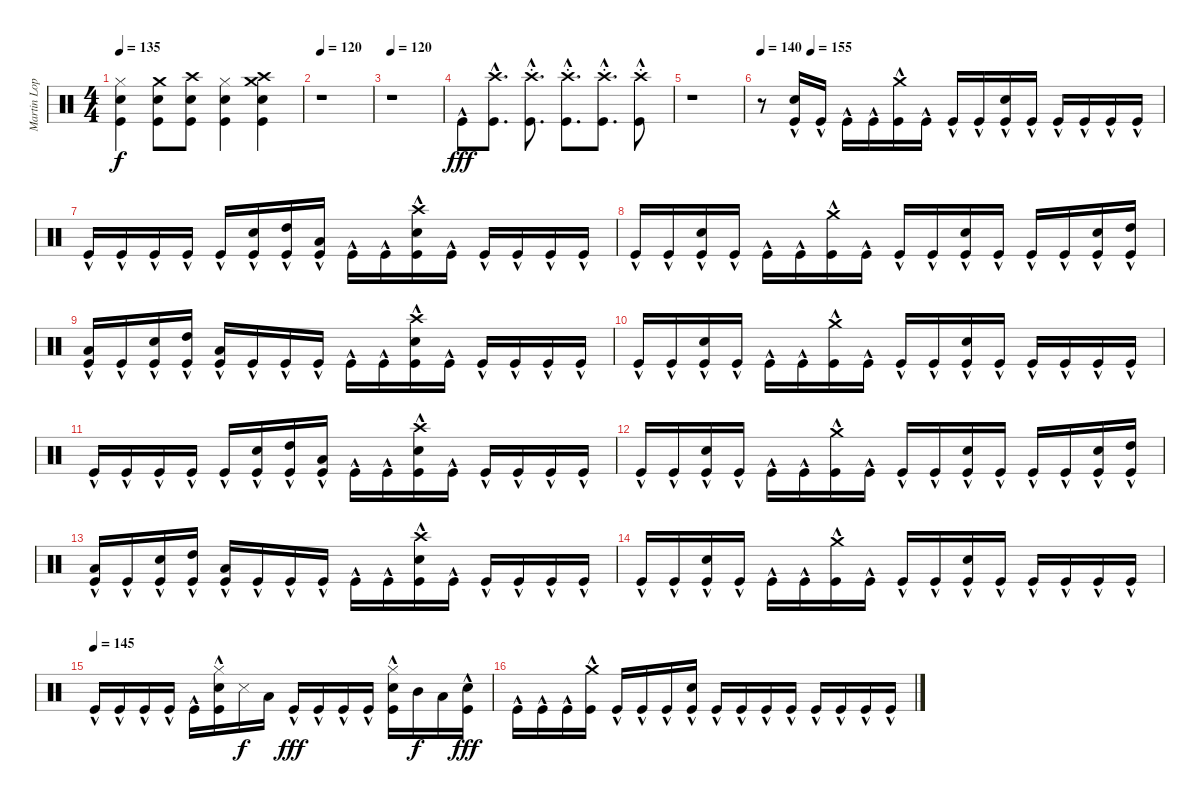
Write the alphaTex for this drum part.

\track ("Martin Lopez" "Martin Lop") {instrument percussion}
\staff {score}
\articulation defaults
\ts (4 4)
\tempo 135
\clef neutral
\ks c
("Hi-Hat (closed)" "Electric Snare (hit)" "Kick (hit)").4{dy f} ("Crash medium (hit)" "Electric Snare (hit)" "Kick (hit)").8 ("Crash high (hit)" "Electric Snare (hit)" "Kick (hit)").8 ("Hi-Hat (closed)" "Electric Snare (hit)" "Kick (hit)").4 ("Crash medium (hit)" "Crash high (hit)" "Electric Snare (hit)" "Kick (hit)").4 |
\tempo 120
r.1 |
\tempo 120
r.1 |
"Kick (hit)"{hac}.8{dy fff} ("Crash high (hit)" "Kick (hit)"{hac}).8{d} ("Crash high (hit)"{st} "Kick (hit)"{hac}).8{d} ("Crash high (hit)"{st} "Kick (hit)"{hac}).8{d} ("Crash high (hit)"{st} "Kick (hit)"{hac}).8{d} ("Crash high (hit)"{st} "Kick (hit)"{hac}).8 |
r.1 |
\tempo (155 0.125)
\tempo 140
r.8 ("Electric Snare (hit)" "Kick (hit)"{hac}).16 "Kick (hit)"{hac}.16 "Kick (hit)"{hac}.16 "Kick (hit)"{hac}.16 ("Crash medium (hit)" "Kick (hit)"{hac}).16 "Kick (hit)"{hac}.16 "Kick (hit)"{hac}.16 "Kick (hit)"{hac}.16 ("Electric Snare (hit)" "Kick (hit)"{hac}).16 "Kick (hit)"{hac}.16 "Kick (hit)"{hac}.16 "Kick (hit)"{hac}.16 "Kick (hit)"{hac}.16 "Kick (hit)"{hac}.16 |
"Kick (hit)"{hac}.16 "Kick (hit)"{hac}.16 "Kick (hit)"{hac}.16 "Kick (hit)"{hac}.16 "Kick (hit)"{hac}.16 ("Electric Snare (hit)" "Kick (hit)"{hac}).16 ("High Tom (hit)" "Kick (hit)"{hac}).16 ("Low Tom (hit)" "Kick (hit)"{hac}).16 "Kick (hit)"{hac}.16 "Kick (hit)"{hac}.16 ("Crash high (hit)" "Electric Snare (hit)" "Kick (hit)"{hac}).16 "Kick (hit)"{hac}.16 "Kick (hit)"{hac}.16 "Kick (hit)"{hac}.16 "Kick (hit)"{hac}.16 "Kick (hit)"{hac}.16 |
"Kick (hit)"{hac}.16 "Kick (hit)"{hac}.16 ("Electric Snare (hit)" "Kick (hit)"{hac}).16 "Kick (hit)"{hac}.16 "Kick (hit)"{hac}.16 "Kick (hit)"{hac}.16 ("Crash medium (hit)" "Kick (hit)"{hac}).16 "Kick (hit)"{hac}.16 "Kick (hit)"{hac}.16 "Kick (hit)"{hac}.16 ("Electric Snare (hit)" "Kick (hit)"{hac}).16 "Kick (hit)"{hac}.16 "Kick (hit)"{hac}.16 "Kick (hit)"{hac}.16 ("Electric Snare (hit)" "Kick (hit)"{hac}).16 ("High Tom (hit)" "Kick (hit)"{hac}).16 |
("Low Tom (hit)" "Kick (hit)"{hac}).16 "Kick (hit)"{hac}.16 ("Electric Snare (hit)" "Kick (hit)"{hac}).16 ("High Tom (hit)" "Kick (hit)"{hac}).16 ("Low Tom (hit)" "Kick (hit)"{hac}).16 "Kick (hit)"{hac}.16 "Kick (hit)"{hac}.16 "Kick (hit)"{hac}.16 "Kick (hit)"{hac}.16 "Kick (hit)"{hac}.16 ("Crash high (hit)" "Electric Snare (hit)" "Kick (hit)"{hac}).16 "Kick (hit)"{hac}.16 "Kick (hit)"{hac}.16 "Kick (hit)"{hac}.16 "Kick (hit)"{hac}.16 "Kick (hit)"{hac}.16 |
"Kick (hit)"{hac}.16 "Kick (hit)"{hac}.16 ("Electric Snare (hit)" "Kick (hit)"{hac}).16 "Kick (hit)"{hac}.16 "Kick (hit)"{hac}.16 "Kick (hit)"{hac}.16 ("Crash medium (hit)" "Kick (hit)"{hac}).16 "Kick (hit)"{hac}.16 "Kick (hit)"{hac}.16 "Kick (hit)"{hac}.16 ("Electric Snare (hit)" "Kick (hit)"{hac}).16 "Kick (hit)"{hac}.16 "Kick (hit)"{hac}.16 "Kick (hit)"{hac}.16 "Kick (hit)"{hac}.16 "Kick (hit)"{hac}.16 |
"Kick (hit)"{hac}.16 "Kick (hit)"{hac}.16 "Kick (hit)"{hac}.16 "Kick (hit)"{hac}.16 "Kick (hit)"{hac}.16 ("Electric Snare (hit)" "Kick (hit)"{hac}).16 ("High Tom (hit)" "Kick (hit)"{hac}).16 ("Low Tom (hit)" "Kick (hit)"{hac}).16 "Kick (hit)"{hac}.16 "Kick (hit)"{hac}.16 ("Crash high (hit)" "Electric Snare (hit)" "Kick (hit)"{hac}).16 "Kick (hit)"{hac}.16 "Kick (hit)"{hac}.16 "Kick (hit)"{hac}.16 "Kick (hit)"{hac}.16 "Kick (hit)"{hac}.16 |
"Kick (hit)"{hac}.16 "Kick (hit)"{hac}.16 ("Electric Snare (hit)" "Kick (hit)"{hac}).16 "Kick (hit)"{hac}.16 "Kick (hit)"{hac}.16 "Kick (hit)"{hac}.16 ("Crash medium (hit)" "Kick (hit)"{hac}).16 "Kick (hit)"{hac}.16 "Kick (hit)"{hac}.16 "Kick (hit)"{hac}.16 ("Electric Snare (hit)" "Kick (hit)"{hac}).16 "Kick (hit)"{hac}.16 "Kick (hit)"{hac}.16 "Kick (hit)"{hac}.16 ("Electric Snare (hit)" "Kick (hit)"{hac}).16 ("High Tom (hit)" "Kick (hit)"{hac}).16 |
("Low Tom (hit)" "Kick (hit)"{hac}).16 "Kick (hit)"{hac}.16 ("Electric Snare (hit)" "Kick (hit)"{hac}).16 ("High Tom (hit)" "Kick (hit)"{hac}).16 ("Low Tom (hit)" "Kick (hit)"{hac}).16 "Kick (hit)"{hac}.16 "Kick (hit)"{hac}.16 "Kick (hit)"{hac}.16 "Kick (hit)"{hac}.16 "Kick (hit)"{hac}.16 ("Crash high (hit)" "Electric Snare (hit)" "Kick (hit)"{hac}).16 "Kick (hit)"{hac}.16 "Kick (hit)"{hac}.16 "Kick (hit)"{hac}.16 "Kick (hit)"{hac}.16 "Kick (hit)"{hac}.16 |
"Kick (hit)"{hac}.16 "Kick (hit)"{hac}.16 ("Electric Snare (hit)" "Kick (hit)"{hac}).16 "Kick (hit)"{hac}.16 "Kick (hit)"{hac}.16 "Kick (hit)"{hac}.16 ("Crash medium (hit)" "Kick (hit)"{hac}).16 "Kick (hit)"{hac}.16 "Kick (hit)"{hac}.16 "Kick (hit)"{hac}.16 ("Electric Snare (hit)" "Kick (hit)"{hac}).16 "Kick (hit)"{hac}.16 "Kick (hit)"{hac}.16 "Kick (hit)"{hac}.16 "Kick (hit)"{hac}.16 "Kick (hit)"{hac}.16 |
\tempo (145)
"Kick (hit)"{hac}.16 "Kick (hit)"{hac}.16 "Kick (hit)"{hac}.16 "Kick (hit)"{hac}.16 "Kick (hit)"{hac}.16 ("Hi-Hat (closed)" "Electric Snare (hit)" "Kick (hit)"{hac}).16 "Snare (side stick) 3".16{dy f} "Low Tom (hit)".16 "Kick (hit)"{hac}.16{dy fff} "Kick (hit)"{hac}.16 "Kick (hit)"{hac}.16 "Kick (hit)"{hac}.16 ("Hi-Hat (closed)" "Electric Snare (hit)" "Kick (hit)"{hac}).16 "Mid Tom (hit)".16{dy f} "Low Tom (hit)".16 ("Electric Snare (hit)" "Kick (hit)"{hac}).16{dy fff} |
"Kick (hit)"{hac}.16 "Kick (hit)"{hac}.16 "Kick (hit)"{hac}.16 ("Crash medium (hit)" "Kick (hit)"{hac}).16 "Kick (hit)"{hac}.16 "Kick (hit)"{hac}.16 "Kick (hit)"{hac}.16 ("Electric Snare (hit)" "Kick (hit)"{hac}).16 "Kick (hit)"{hac}.16 "Kick (hit)"{hac}.16 "Kick (hit)"{hac}.16 "Kick (hit)"{hac}.16 "Kick (hit)"{hac}.16 "Kick (hit)"{hac}.16 "Kick (hit)"{hac}.16 "Kick (hit)"{hac}.16
